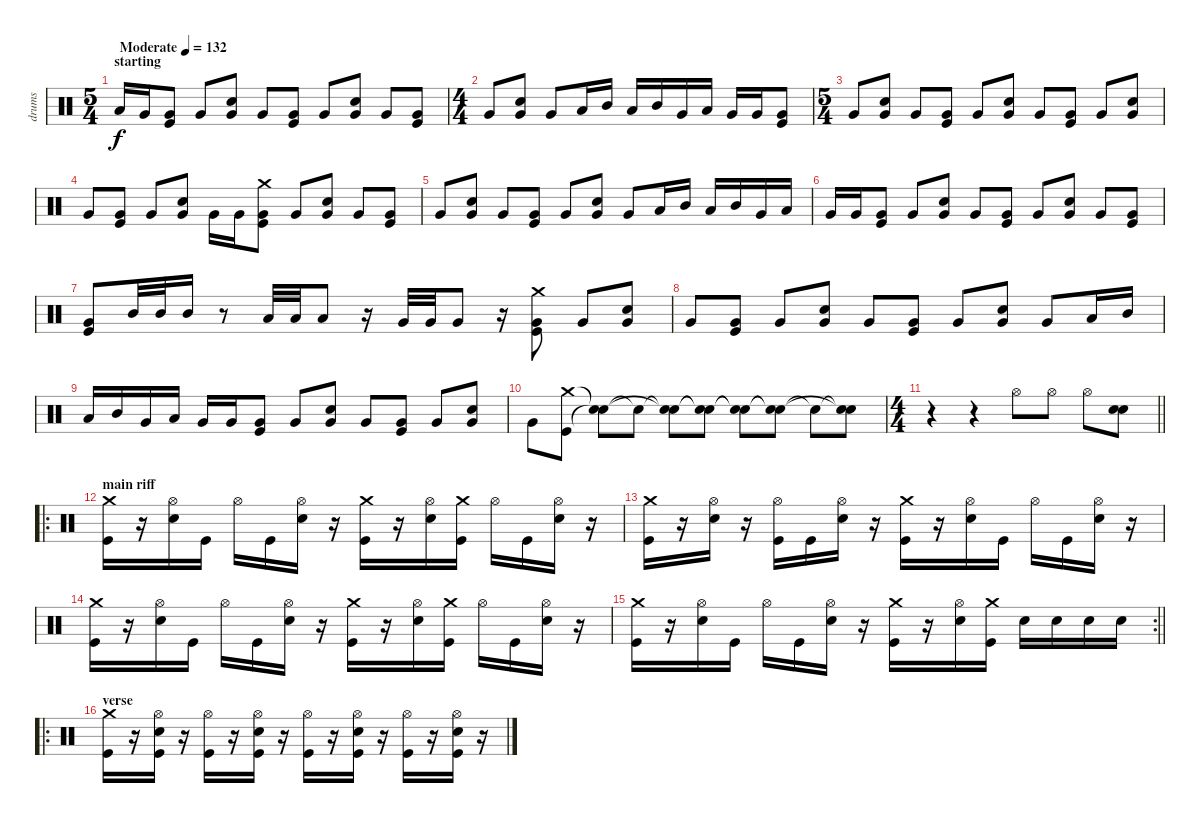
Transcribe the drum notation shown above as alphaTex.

\track ("drums" "drums") {instrument percussion}
\staff {score}
\articulation defaults
\ts (5 4)
\section ("" "starting")
\tempo (132 "Moderate")
\clef neutral
\ks c "Low Tom (hit)".16{dy f} "Very Low Tom (hit)".16
("Very Low Tom (hit)" "Kick (hit)").8 "Very Low Tom (hit)".8 ("Very Low Tom (hit)" "Snare (hit) 2").8 "Very Low Tom (hit)".8 ("Very Low Tom (hit)" "Kick (hit)").8 "Very Low Tom (hit)".8 ("Very Low Tom (hit)" "Snare (hit) 2").8 "Very Low Tom (hit)".8 ("Very Low Tom (hit)" "Kick (hit)").8 |
\ts (4 4)
"Very Low Tom (hit)".8 ("Very Low Tom (hit)" "Snare (hit) 2").8 "Very Low Tom (hit)".8 "Low Tom (hit)".16 "Mid Tom (hit)".16 "Low Tom (hit)".16 "Mid Tom (hit)".16 "Very Low Tom (hit)".16 "Low Tom (hit)".16 "Very Low Tom (hit)".16 "Very Low Tom (hit)".16 ("Very Low Tom (hit)" "Kick (hit)").8 |
\ts (5 4)
"Very Low Tom (hit)".8 ("Very Low Tom (hit)" "Snare (hit) 2").8 "Very Low Tom (hit)".8 ("Very Low Tom (hit)" "Kick (hit)").8 "Very Low Tom (hit)".8 ("Very Low Tom (hit)" "Snare (hit) 2").8 "Very Low Tom (hit)".8 ("Very Low Tom (hit)" "Kick (hit)").8 "Very Low Tom (hit)".8 ("Very Low Tom (hit)" "Snare (hit) 2").8 |
"Very Low Tom (hit)".8 ("Very Low Tom (hit)" "Kick (hit)").8 "Very Low Tom (hit)".8 ("Very Low Tom (hit)" "Snare (hit) 2").8 "Very Low Tom (hit)".16 "Very Low Tom (hit)".16 ("Crash medium (hit)" "Very Low Tom (hit)" "Kick (hit)").8 "Very Low Tom (hit)".8 ("Very Low Tom (hit)" "Snare (hit) 2").8 "Very Low Tom (hit)".8 ("Very Low Tom (hit)" "Kick (hit)").8 |
"Very Low Tom (hit)".8 ("Very Low Tom (hit)" "Snare (hit) 2").8 "Very Low Tom (hit)".8 ("Very Low Tom (hit)" "Kick (hit)").8 "Very Low Tom (hit)".8 ("Very Low Tom (hit)" "Snare (hit) 2").8 "Very Low Tom (hit)".8 "Low Tom (hit)".16 "Mid Tom (hit)".16 "Low Tom (hit)".16 "Mid Tom (hit)".16 "Very Low Tom (hit)".16 "Low Tom (hit)".16 |
"Very Low Tom (hit)".16 "Very Low Tom (hit)".16 ("Very Low Tom (hit)" "Kick (hit)").8 "Very Low Tom (hit)".8 ("Very Low Tom (hit)" "Snare (hit) 2").8 "Very Low Tom (hit)".8 ("Very Low Tom (hit)" "Kick (hit)").8 "Very Low Tom (hit)".8 ("Very Low Tom (hit)" "Snare (hit) 2").8 "Very Low Tom (hit)".8 ("Very Low Tom (hit)" "Kick (hit)").8 |
("Very Low Tom (hit)" "Kick (hit)").8 "Mid Tom (hit)".32 "Mid Tom (hit)".32 "Mid Tom (hit)".16 r.8 "Low Tom (hit)".32 "Low Tom (hit)".32 "Low Tom (hit)".8 r.16 "Very Low Tom (hit)".32 "Very Low Tom (hit)".32 "Very Low Tom (hit)".8 r.16 ("Crash medium (hit)" "Very Low Tom (hit)" "Kick (hit)").8 "Very Low Tom (hit)".8 ("Very Low Tom (hit)" "Snare (hit) 2").8 |
"Very Low Tom (hit)".8 ("Very Low Tom (hit)" "Kick (hit)").8 "Very Low Tom (hit)".8 ("Very Low Tom (hit)" "Snare (hit) 2").8 "Very Low Tom (hit)".8 ("Very Low Tom (hit)" "Kick (hit)").8 "Very Low Tom (hit)".8 ("Very Low Tom (hit)" "Snare (hit) 2").8 "Very Low Tom (hit)".8 "Low Tom (hit)".16 "Mid Tom (hit)".16 |
"Low Tom (hit)".16 "Mid Tom (hit)".16 "Very Low Tom (hit)".16 "Low Tom (hit)".16 "Very Low Tom (hit)".16 "Very Low Tom (hit)".16 ("Very Low Tom (hit)" "Kick (hit)").8 "Very Low Tom (hit)".8 ("Very Low Tom (hit)" "Snare (hit) 2").8 "Very Low Tom (hit)".8 ("Very Low Tom (hit)" "Kick (hit)").8 "Very Low Tom (hit)".8 ("Very Low Tom (hit)" "Snare (hit) 2").8 |
"Very Low Tom (hit)".8 ("Crash medium (hit)" "Kick (hit)").8 ("Snare (hit)"{t} "Snare (hit)"{t}).8 "Snare (hit)"{t}.8 ("Snare (hit)"{t} "Snare (hit)"{t}).8 ("Snare (hit)"{t} "Snare (hit)"{t}).8 ("Snare (hit)"{t} "Snare (hit)"{t}).8 ("Snare (hit)"{t} "Snare (hit)"{t}).8 "Snare (hit)"{t}.8 ("Snare (hit)"{t} "Snare (hit)"{t}).8 |
\ts (4 4)
\barLineRight lightlight
r.4 r.4 "Hi-Hat (open)".8 "Hi-Hat (open)".8 "Hi-Hat (open)".8 ("Snare (hit) 2" "Snare (hit) 2").8 |
\ro
\section ("" "main riff")
("Crash medium (hit)" "Kick (hit)").16 r.16 ("Hi-Hat (open)" "Snare (hit) 2").16 "Kick (hit)".16 "Hi-Hat (open)".16 "Kick (hit)".16 ("Hi-Hat (open)" "Snare (hit) 2").16 r.16 ("Crash medium (hit)" "Kick (hit)").16 r.16 ("Hi-Hat (open)" "Snare (hit) 2").16 ("Crash medium (hit)" "Kick (hit)").16 "Hi-Hat (open)".16 "Kick (hit)".16 ("Hi-Hat (open)" "Snare (hit) 2").16 r.16 |
("Crash medium (hit)" "Kick (hit)").16 r.16 ("Hi-Hat (open)" "Snare (hit) 2").16 r.16 ("Hi-Hat (open)" "Kick (hit)").16 "Kick (hit)".16 ("Hi-Hat (open)" "Snare (hit) 2").16 r.16 ("Crash medium (hit)" "Kick (hit)").16 r.16 ("Hi-Hat (open)" "Snare (hit) 2").16 "Kick (hit)".16 "Hi-Hat (open)".16 "Kick (hit)".16 ("Hi-Hat (open)" "Snare (hit) 2").16 r.16 |
("Crash medium (hit)" "Kick (hit)").16 r.16 ("Hi-Hat (open)" "Snare (hit) 2").16 "Kick (hit)".16 "Hi-Hat (open)".16 "Kick (hit)".16 ("Hi-Hat (open)" "Snare (hit) 2").16 r.16 ("Crash medium (hit)" "Kick (hit)").16 r.16 ("Hi-Hat (open)" "Snare (hit) 2").16 ("Crash medium (hit)" "Kick (hit)").16 "Hi-Hat (open)".16 "Kick (hit)".16 ("Hi-Hat (open)" "Snare (hit) 2").16 r.16 |
\rc 2
\barLineRight lightlight
("Crash medium (hit)" "Kick (hit)").16 r.16 ("Hi-Hat (open)" "Snare (hit) 2").16 "Kick (hit)".16 "Hi-Hat (open)".16 "Kick (hit)".16 ("Hi-Hat (open)" "Snare (hit) 2").16 r.16 ("Crash medium (hit)" "Kick (hit)").16 r.16 ("Hi-Hat (open)" "Snare (hit) 2").16 ("Crash medium (hit)" "Kick (hit)").16 "Snare (hit) 2".16 "Snare (hit) 2".16 "Snare (hit) 2".16 "Snare (hit) 2".16 |
\ro
\section ("" "verse")
("Crash medium (hit)" "Kick (hit)").16 r.16 ("Hi-Hat (open)" "Snare (hit) 2" "Kick (hit)").16 r.16 ("Hi-Hat (open)" "Kick (hit)").16 r.16 ("Hi-Hat (open)" "Snare (hit) 2" "Kick (hit)").16 r.16 ("Hi-Hat (open)" "Kick (hit)").16 r.16 ("Hi-Hat (open)" "Snare (hit) 2" "Kick (hit)").16 r.16 ("Hi-Hat (open)" "Kick (hit)").16 r.16 ("Hi-Hat (open)" "Snare (hit) 2" "Kick (hit)").16 r.16
